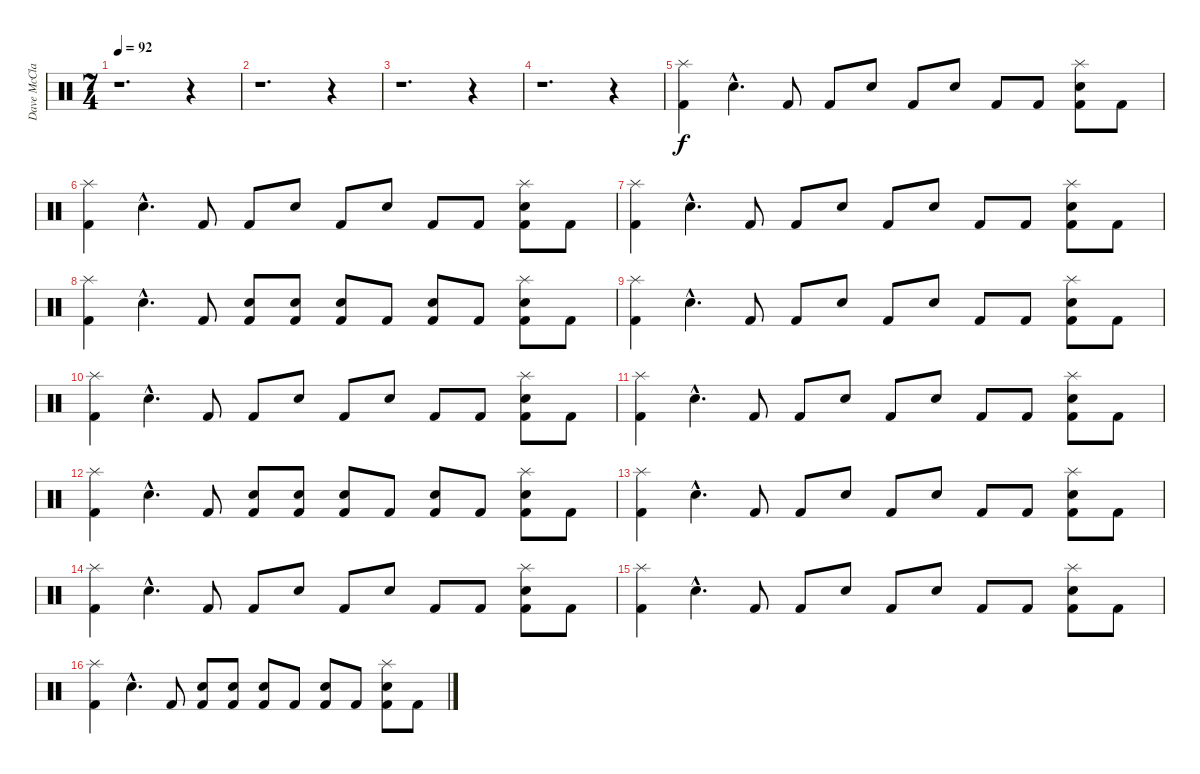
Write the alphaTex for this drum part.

\track ("Dave McClain" "Dave McCla") {instrument percussion}
\staff {score}
\articulation defaults
\ts (7 4)
\tempo 92
\clef neutral
\ks c
r.1{d dy f} r.4 |
r.1{d} r.4 |
r.1{d} r.4 |
r.1{d} r.4 |
("Splash (hit)" "Kick (hit) 2").4{volume 10} "Snare (hit) 2"{hac}.4{d} "Kick (hit) 2".8 "Kick (hit) 2".8 "Electric Snare (hit)".8 "Kick (hit) 2".8 "Electric Snare (hit)".8 "Kick (hit) 2".8 "Kick (hit) 2".8 ("Splash (hit)" "Electric Snare (hit)" "Kick (hit) 2").8 "Kick (hit) 2".8 |
("Splash (hit)" "Kick (hit) 2").4 "Snare (hit) 2"{hac}.4{d} "Kick (hit) 2".8 "Kick (hit) 2".8 "Electric Snare (hit)".8 "Kick (hit) 2".8 "Electric Snare (hit)".8 "Kick (hit) 2".8 "Kick (hit) 2".8 ("Splash (hit)" "Electric Snare (hit)" "Kick (hit) 2").8 "Kick (hit) 2".8 |
("Splash (hit)" "Kick (hit) 2").4 "Snare (hit) 2"{hac}.4{d} "Kick (hit) 2".8 "Kick (hit) 2".8 "Electric Snare (hit)".8 "Kick (hit) 2".8 "Electric Snare (hit)".8 "Kick (hit) 2".8 "Kick (hit) 2".8 ("Splash (hit)" "Electric Snare (hit)" "Kick (hit) 2").8 "Kick (hit) 2".8 |
("Splash (hit)" "Kick (hit) 2").4 "Snare (hit) 2"{hac}.4{d} "Kick (hit) 2".8 ("Electric Snare (hit)" "Kick (hit) 2").8 ("Electric Snare (hit)" "Kick (hit) 2").8 ("Electric Snare (hit)" "Kick (hit) 2").8 "Kick (hit) 2".8 ("Electric Snare (hit)" "Kick (hit) 2").8 "Kick (hit) 2".8 ("Splash (hit)" "Electric Snare (hit)" "Kick (hit) 2").8 "Kick (hit) 2".8 |
("Splash (hit)" "Kick (hit) 2").4 "Snare (hit) 2"{hac}.4{d} "Kick (hit) 2".8 "Kick (hit) 2".8 "Electric Snare (hit)".8 "Kick (hit) 2".8 "Electric Snare (hit)".8 "Kick (hit) 2".8 "Kick (hit) 2".8 ("Splash (hit)" "Electric Snare (hit)" "Kick (hit) 2").8 "Kick (hit) 2".8 |
("Splash (hit)" "Kick (hit) 2").4 "Snare (hit) 2"{hac}.4{d} "Kick (hit) 2".8 "Kick (hit) 2".8 "Electric Snare (hit)".8 "Kick (hit) 2".8 "Electric Snare (hit)".8 "Kick (hit) 2".8 "Kick (hit) 2".8 ("Splash (hit)" "Electric Snare (hit)" "Kick (hit) 2").8 "Kick (hit) 2".8 |
("Splash (hit)" "Kick (hit) 2").4 "Snare (hit) 2"{hac}.4{d} "Kick (hit) 2".8 "Kick (hit) 2".8 "Electric Snare (hit)".8 "Kick (hit) 2".8 "Electric Snare (hit)".8 "Kick (hit) 2".8 "Kick (hit) 2".8 ("Splash (hit)" "Electric Snare (hit)" "Kick (hit) 2").8 "Kick (hit) 2".8 |
("Splash (hit)" "Kick (hit) 2").4 "Snare (hit) 2"{hac}.4{d} "Kick (hit) 2".8 ("Electric Snare (hit)" "Kick (hit) 2").8 ("Electric Snare (hit)" "Kick (hit) 2").8 ("Electric Snare (hit)" "Kick (hit) 2").8 "Kick (hit) 2".8 ("Electric Snare (hit)" "Kick (hit) 2").8 "Kick (hit) 2".8 ("Splash (hit)" "Electric Snare (hit)" "Kick (hit) 2").8 "Kick (hit) 2".8 |
("Splash (hit)" "Kick (hit) 2").4 "Snare (hit) 2"{hac}.4{d} "Kick (hit) 2".8 "Kick (hit) 2".8 "Electric Snare (hit)".8 "Kick (hit) 2".8 "Electric Snare (hit)".8 "Kick (hit) 2".8 "Kick (hit) 2".8 ("Splash (hit)" "Electric Snare (hit)" "Kick (hit) 2").8 "Kick (hit) 2".8 |
("Splash (hit)" "Kick (hit) 2").4 "Snare (hit) 2"{hac}.4{d} "Kick (hit) 2".8 "Kick (hit) 2".8 "Electric Snare (hit)".8 "Kick (hit) 2".8 "Electric Snare (hit)".8 "Kick (hit) 2".8 "Kick (hit) 2".8 ("Splash (hit)" "Electric Snare (hit)" "Kick (hit) 2").8 "Kick (hit) 2".8 |
("Splash (hit)" "Kick (hit) 2").4 "Snare (hit) 2"{hac}.4{d} "Kick (hit) 2".8 "Kick (hit) 2".8 "Electric Snare (hit)".8 "Kick (hit) 2".8 "Electric Snare (hit)".8 "Kick (hit) 2".8 "Kick (hit) 2".8 ("Splash (hit)" "Electric Snare (hit)" "Kick (hit) 2").8 "Kick (hit) 2".8 |
("Splash (hit)" "Kick (hit) 2").4 "Snare (hit) 2"{hac}.4{d} "Kick (hit) 2".8 ("Electric Snare (hit)" "Kick (hit) 2").8 ("Electric Snare (hit)" "Kick (hit) 2").8 ("Electric Snare (hit)" "Kick (hit) 2").8 "Kick (hit) 2".8 ("Electric Snare (hit)" "Kick (hit) 2").8 "Kick (hit) 2".8 ("Splash (hit)" "Electric Snare (hit)" "Kick (hit) 2").8 "Kick (hit) 2".8
